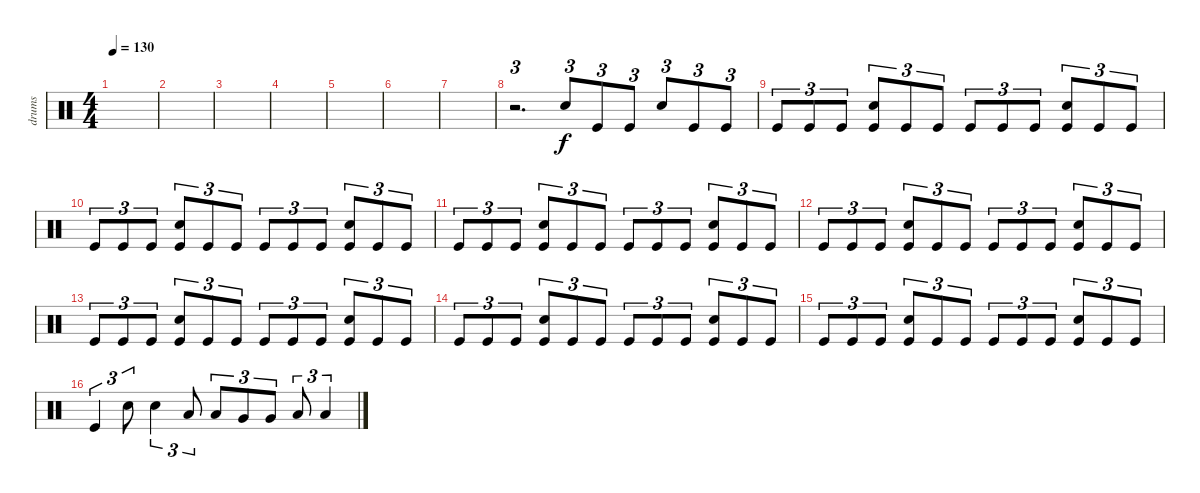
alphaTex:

\track ("drums" "drums") {instrument percussion}
\staff {score}
\articulation defaults
\ts (4 4)
\tempo 130
\clef neutral
\ks c
|
|
|
|
|
|
|
r.2{d tu (3 2)} "Electric Snare (hit)".8{tu (3 2)} "Kick (hit)".8{tu (3 2)} "Kick (hit)".8{tu (3 2)} "Electric Snare (hit)".8{tu (3 2)} "Kick (hit)".8{tu (3 2)} "Kick (hit)".8{tu (3 2)} |
"Kick (hit)".8{tu (3 2)} "Kick (hit)".8{tu (3 2)} "Kick (hit)".8{tu (3 2)} ("Electric Snare (hit)" "Kick (hit)").8{tu (3 2)} "Kick (hit)".8{tu (3 2)} "Kick (hit)".8{tu (3 2)} "Kick (hit)".8{tu (3 2)} "Kick (hit)".8{tu (3 2)} "Kick (hit)".8{tu (3 2)} ("Electric Snare (hit)" "Kick (hit)").8{tu (3 2)} "Kick (hit)".8{tu (3 2)} "Kick (hit)".8{tu (3 2)} |
"Kick (hit)".8{tu (3 2)} "Kick (hit)".8{tu (3 2)} "Kick (hit)".8{tu (3 2)} ("Electric Snare (hit)" "Kick (hit)").8{tu (3 2)} "Kick (hit)".8{tu (3 2)} "Kick (hit)".8{tu (3 2)} "Kick (hit)".8{tu (3 2)} "Kick (hit)".8{tu (3 2)} "Kick (hit)".8{tu (3 2)} ("Electric Snare (hit)" "Kick (hit)").8{tu (3 2)} "Kick (hit)".8{tu (3 2)} "Kick (hit)".8{tu (3 2)} |
"Kick (hit)".8{tu (3 2)} "Kick (hit)".8{tu (3 2)} "Kick (hit)".8{tu (3 2)} ("Electric Snare (hit)" "Kick (hit)").8{tu (3 2)} "Kick (hit)".8{tu (3 2)} "Kick (hit)".8{tu (3 2)} "Kick (hit)".8{tu (3 2)} "Kick (hit)".8{tu (3 2)} "Kick (hit)".8{tu (3 2)} ("Electric Snare (hit)" "Kick (hit)").8{tu (3 2)} "Kick (hit)".8{tu (3 2)} "Kick (hit)".8{tu (3 2)} |
"Kick (hit)".8{tu (3 2)} "Kick (hit)".8{tu (3 2)} "Kick (hit)".8{tu (3 2)} ("Electric Snare (hit)" "Kick (hit)").8{tu (3 2)} "Kick (hit)".8{tu (3 2)} "Kick (hit)".8{tu (3 2)} "Kick (hit)".8{tu (3 2)} "Kick (hit)".8{tu (3 2)} "Kick (hit)".8{tu (3 2)} ("Electric Snare (hit)" "Kick (hit)").8{tu (3 2)} "Kick (hit)".8{tu (3 2)} "Kick (hit)".8{tu (3 2)} |
"Kick (hit)".8{tu (3 2)} "Kick (hit)".8{tu (3 2)} "Kick (hit)".8{tu (3 2)} ("Electric Snare (hit)" "Kick (hit)").8{tu (3 2)} "Kick (hit)".8{tu (3 2)} "Kick (hit)".8{tu (3 2)} "Kick (hit)".8{tu (3 2)} "Kick (hit)".8{tu (3 2)} "Kick (hit)".8{tu (3 2)} ("Electric Snare (hit)" "Kick (hit)").8{tu (3 2)} "Kick (hit)".8{tu (3 2)} "Kick (hit)".8{tu (3 2)} |
"Kick (hit)".8{tu (3 2)} "Kick (hit)".8{tu (3 2)} "Kick (hit)".8{tu (3 2)} ("Electric Snare (hit)" "Kick (hit)").8{tu (3 2)} "Kick (hit)".8{tu (3 2)} "Kick (hit)".8{tu (3 2)} "Kick (hit)".8{tu (3 2)} "Kick (hit)".8{tu (3 2)} "Kick (hit)".8{tu (3 2)} ("Electric Snare (hit)" "Kick (hit)").8{tu (3 2)} "Kick (hit)".8{tu (3 2)} "Kick (hit)".8{tu (3 2)} |
"Kick (hit)".8{tu (3 2)} "Kick (hit)".8{tu (3 2)} "Kick (hit)".8{tu (3 2)} ("Electric Snare (hit)" "Kick (hit)").8{tu (3 2)} "Kick (hit)".8{tu (3 2)} "Kick (hit)".8{tu (3 2)} "Kick (hit)".8{tu (3 2)} "Kick (hit)".8{tu (3 2)} "Kick (hit)".8{tu (3 2)} ("Electric Snare (hit)" "Kick (hit)").8{tu (3 2)} "Kick (hit)".8{tu (3 2)} "Kick (hit)".8{tu (3 2)} |
"Kick (hit)".4{tu (3 2)} "Electric Snare (hit)".8{tu (3 2)} "Electric Snare (hit)".4{tu (3 2)} "Low Tom (hit)".8{tu (3 2)} "Low Tom (hit)".8{tu (3 2)} "Very Low Tom (hit)".8{tu (3 2)} "Very Low Tom (hit)".8{tu (3 2)} "Low Floor Tom (hit)".8{tu (3 2)} "Low Floor Tom (hit)".4{tu (3 2)}
